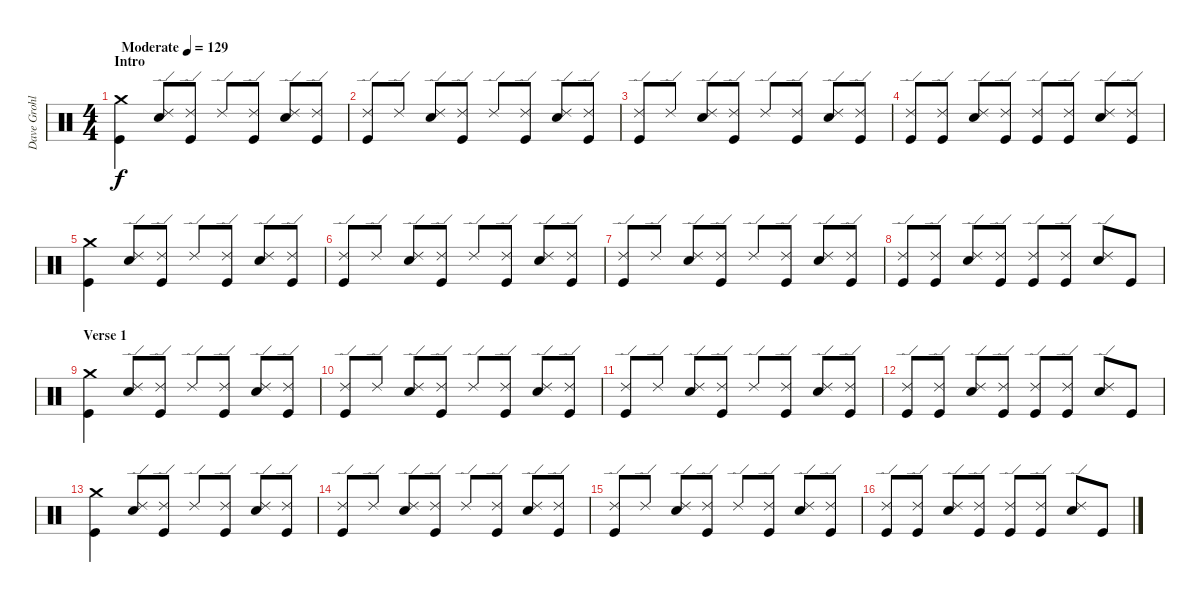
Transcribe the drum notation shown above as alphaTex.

\track ("Dave Grohl" "Dave Grohl") {instrument percussion}
\staff {score}
\articulation defaults
\ts (4 4)
\section ("" "Intro")
\tempo (129 "Moderate")
\clef neutral
\ks c
("Crash medium (hit)" "Kick (hit)").4{dy f} ("Ride (edge) 2" "Electric Snare (hit)").8 ("Ride (edge) 2" "Kick (hit)").8 "Ride (edge) 2".8 ("Ride (edge) 2" "Kick (hit)").8 ("Ride (edge) 2" "Electric Snare (hit)").8 ("Ride (edge) 2" "Kick (hit)").8 |
("Ride (edge) 2" "Kick (hit)").8 "Ride (edge) 2".8 ("Ride (edge) 2" "Electric Snare (hit)").8 ("Ride (edge) 2" "Kick (hit)").8 "Ride (edge) 2".8 ("Ride (edge) 2" "Kick (hit)").8 ("Ride (edge) 2" "Electric Snare (hit)").8 ("Ride (edge) 2" "Kick (hit)").8 |
("Ride (edge) 2" "Kick (hit)").8 "Ride (edge) 2".8 ("Ride (edge) 2" "Electric Snare (hit)").8 ("Ride (edge) 2" "Kick (hit)").8 "Ride (edge) 2".8 ("Ride (edge) 2" "Kick (hit)").8 ("Ride (edge) 2" "Electric Snare (hit)").8 ("Ride (edge) 2" "Kick (hit)").8 |
("Ride (edge) 2" "Kick (hit)").8 ("Ride (edge) 2" "Kick (hit)").8 ("Ride (edge) 2" "Electric Snare (hit)").8 ("Ride (edge) 2" "Kick (hit)").8 ("Ride (edge) 2" "Kick (hit)").8 ("Ride (edge) 2" "Kick (hit)").8 ("Ride (edge) 2" "Electric Snare (hit)").8 ("Ride (edge) 2" "Kick (hit)").8 |
("Crash medium (hit)" "Kick (hit)").4 ("Ride (edge) 2" "Electric Snare (hit)").8 ("Ride (edge) 2" "Kick (hit)").8 "Ride (edge) 2".8 ("Ride (edge) 2" "Kick (hit)").8 ("Ride (edge) 2" "Electric Snare (hit)").8 ("Ride (edge) 2" "Kick (hit)").8 |
("Ride (edge) 2" "Kick (hit)").8 "Ride (edge) 2".8 ("Ride (edge) 2" "Electric Snare (hit)").8 ("Ride (edge) 2" "Kick (hit)").8 "Ride (edge) 2".8 ("Ride (edge) 2" "Kick (hit)").8 ("Ride (edge) 2" "Electric Snare (hit)").8 ("Ride (edge) 2" "Kick (hit)").8 |
("Ride (edge) 2" "Kick (hit)").8 "Ride (edge) 2".8 ("Ride (edge) 2" "Electric Snare (hit)").8 ("Ride (edge) 2" "Kick (hit)").8 "Ride (edge) 2".8 ("Ride (edge) 2" "Kick (hit)").8 ("Ride (edge) 2" "Electric Snare (hit)").8 ("Ride (edge) 2" "Kick (hit)").8 |
("Ride (edge) 2" "Kick (hit)").8 ("Ride (edge) 2" "Kick (hit)").8 ("Ride (edge) 2" "Electric Snare (hit)").8 ("Ride (edge) 2" "Kick (hit)").8 ("Ride (edge) 2" "Kick (hit)").8 ("Ride (edge) 2" "Kick (hit)").8 ("Ride (edge) 2" "Electric Snare (hit)").8 "Kick (hit)".8 |
\section ("" "Verse 1")
("Crash medium (hit)" "Kick (hit)").4 ("Ride (edge) 2" "Electric Snare (hit)").8 ("Ride (edge) 2" "Kick (hit)").8 "Ride (edge) 2".8 ("Ride (edge) 2" "Kick (hit)").8 ("Ride (edge) 2" "Electric Snare (hit)").8 ("Ride (edge) 2" "Kick (hit)").8 |
("Ride (edge) 2" "Kick (hit)").8 "Ride (edge) 2".8 ("Ride (edge) 2" "Electric Snare (hit)").8 ("Ride (edge) 2" "Kick (hit)").8 "Ride (edge) 2".8 ("Ride (edge) 2" "Kick (hit)").8 ("Ride (edge) 2" "Electric Snare (hit)").8 ("Ride (edge) 2" "Kick (hit)").8 |
("Ride (edge) 2" "Kick (hit)").8 "Ride (edge) 2".8 ("Ride (edge) 2" "Electric Snare (hit)").8 ("Ride (edge) 2" "Kick (hit)").8 "Ride (edge) 2".8 ("Ride (edge) 2" "Kick (hit)").8 ("Ride (edge) 2" "Electric Snare (hit)").8 ("Ride (edge) 2" "Kick (hit)").8 |
("Ride (edge) 2" "Kick (hit)").8 ("Ride (edge) 2" "Kick (hit)").8 ("Ride (edge) 2" "Electric Snare (hit)").8 ("Ride (edge) 2" "Kick (hit)").8 ("Ride (edge) 2" "Kick (hit)").8 ("Ride (edge) 2" "Kick (hit)").8 ("Ride (edge) 2" "Electric Snare (hit)").8 "Kick (hit)".8 |
("Crash medium (hit)" "Kick (hit)").4 ("Ride (edge) 2" "Electric Snare (hit)").8 ("Ride (edge) 2" "Kick (hit)").8 "Ride (edge) 2".8 ("Ride (edge) 2" "Kick (hit)").8 ("Ride (edge) 2" "Electric Snare (hit)").8 ("Ride (edge) 2" "Kick (hit)").8 |
("Ride (edge) 2" "Kick (hit)").8 "Ride (edge) 2".8 ("Ride (edge) 2" "Electric Snare (hit)").8 ("Ride (edge) 2" "Kick (hit)").8 "Ride (edge) 2".8 ("Ride (edge) 2" "Kick (hit)").8 ("Ride (edge) 2" "Electric Snare (hit)").8 ("Ride (edge) 2" "Kick (hit)").8 |
("Ride (edge) 2" "Kick (hit)").8 "Ride (edge) 2".8 ("Ride (edge) 2" "Electric Snare (hit)").8 ("Ride (edge) 2" "Kick (hit)").8 "Ride (edge) 2".8 ("Ride (edge) 2" "Kick (hit)").8 ("Ride (edge) 2" "Electric Snare (hit)").8 ("Ride (edge) 2" "Kick (hit)").8 |
("Ride (edge) 2" "Kick (hit)").8 ("Ride (edge) 2" "Kick (hit)").8 ("Ride (edge) 2" "Electric Snare (hit)").8 ("Ride (edge) 2" "Kick (hit)").8 ("Ride (edge) 2" "Kick (hit)").8 ("Ride (edge) 2" "Kick (hit)").8 ("Ride (edge) 2" "Electric Snare (hit)").8 "Kick (hit)".8
